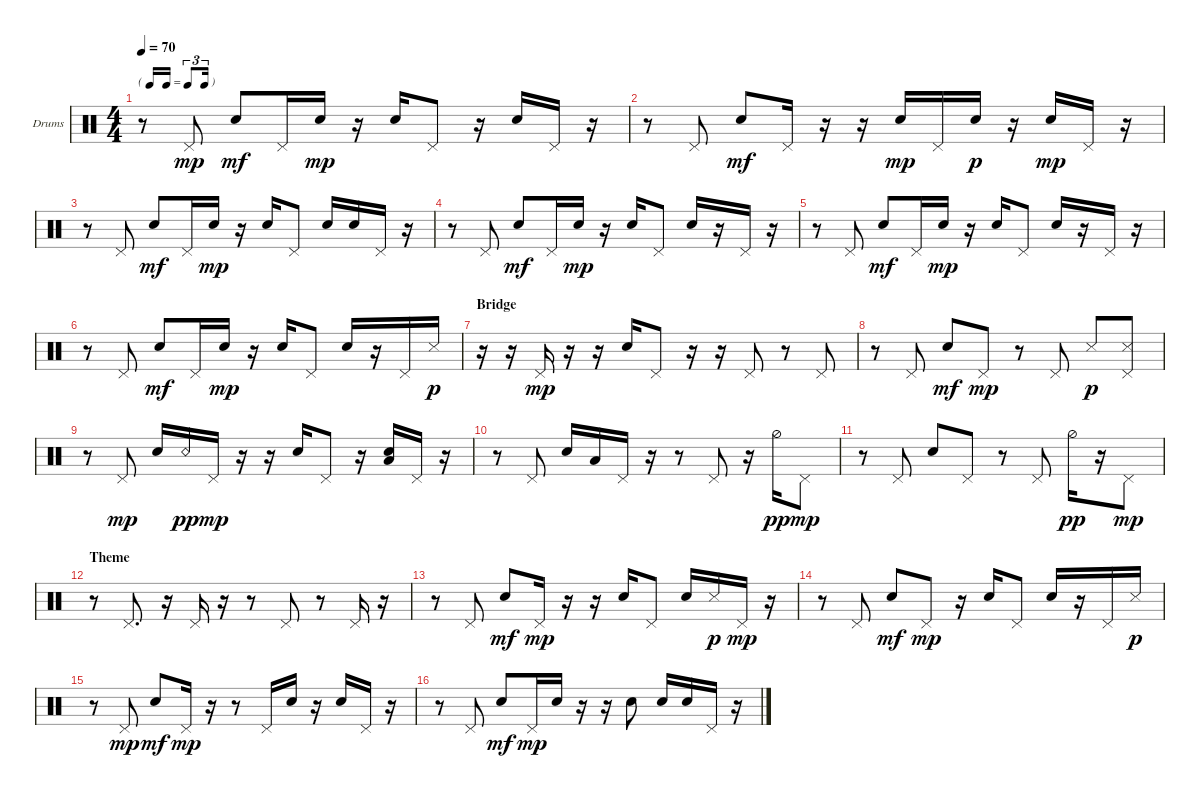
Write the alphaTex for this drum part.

\bracketExtendMode groupsimilarinstruments
\firstSystemTrackNameOrientation horizontal
\otherSystemsTrackNameOrientation horizontal
\track ("Snare" "Drums") {instrument percussion}
\staff {score}
\articulation defaults
\ts (4 4)
\tf triplet16th
\tempo 70
\clef neutral
\ks aminor
r.8{dy mp} "Pedal Hi-Hat (hit)".8 "Snare (hit) 2".8{dy mf} "Pedal Hi-Hat (hit)".16 "Snare (hit) 2".16{dy mp} r.16 "Snare (hit) 2".16 "Pedal Hi-Hat (hit)".8 r.16 "Snare (hit) 2".16 "Pedal Hi-Hat (hit)".16 r.16 |
r.8 "Pedal Hi-Hat (hit)".8 "Snare (hit) 2".8{dy mf} "Pedal Hi-Hat (hit)".16 r.16 r.16 "Snare (hit) 2".16{dy mp} "Pedal Hi-Hat (hit)".16 "Snare (hit) 2".16{dy p} r.16 "Snare (hit) 2".16{dy mp} "Pedal Hi-Hat (hit)".16 r.16 |
r.8 "Pedal Hi-Hat (hit)".8 "Snare (hit) 2".8{dy mf} "Pedal Hi-Hat (hit)".16 "Snare (hit) 2".16{dy mp} r.16 "Snare (hit) 2".16 "Pedal Hi-Hat (hit)".8 "Snare (hit) 2".16 "Snare (hit) 2".16 "Pedal Hi-Hat (hit)".16 r.16 |
r.8 "Pedal Hi-Hat (hit)".8 "Snare (hit) 2".8{dy mf} "Pedal Hi-Hat (hit)".16 "Snare (hit) 2".16{dy mp} r.16 "Snare (hit) 2".16 "Pedal Hi-Hat (hit)".8 "Snare (hit) 2".16 r.16 "Pedal Hi-Hat (hit)".16 r.16 |
r.8 "Pedal Hi-Hat (hit)".8 "Snare (hit) 2".8{dy mf} "Pedal Hi-Hat (hit)".16 "Snare (hit) 2".16{dy mp} r.16 "Snare (hit) 2".16 "Pedal Hi-Hat (hit)".8 "Snare (hit) 2".16 r.16 "Pedal Hi-Hat (hit)".16 r.16 |
r.8 "Pedal Hi-Hat (hit)".8 "Snare (hit) 2".8{dy mf} "Pedal Hi-Hat (hit)".16 "Snare (hit) 2".16{dy mp} r.16 "Snare (hit) 2".16 "Pedal Hi-Hat (hit)".8 "Snare (hit) 2".16 r.16 "Pedal Hi-Hat (hit)".16 "Snare (side stick) 3".16{dy p} |
\section ("" "Bridge")
r.16 r.16 "Pedal Hi-Hat (hit)".16{dy mp} r.16 r.16 "Snare (hit) 2".16 "Pedal Hi-Hat (hit)".8 r.16 r.16 "Pedal Hi-Hat (hit)".8 r.8 "Pedal Hi-Hat (hit)".8 |
r.8 "Pedal Hi-Hat (hit)".8 "Snare (hit) 2".8{dy mf} "Pedal Hi-Hat (hit)".8{dy mp} r.8 "Pedal Hi-Hat (hit)".8 "Snare (side stick) 3".8{dy p} ("Pedal Hi-Hat (hit)" "Snare (side stick) 3").8 |
r.8 "Pedal Hi-Hat (hit)".8{dy mp} "Snare (hit) 2".16 "Snare (rim shot)".16{dy pp} "Pedal Hi-Hat (hit)".16{dy mp} r.16 r.16 "Snare (hit) 2".16 "Pedal Hi-Hat (hit)".8 r.16 ("Snare (hit) 2" "Low Tom (hit)").16 "Pedal Hi-Hat (hit)".16 r.16 |
r.8 "Pedal Hi-Hat (hit)".8 "Snare (hit) 2".16 "Low Tom (hit)".16 "Pedal Hi-Hat (hit)".16 r.16 r.8 "Pedal Hi-Hat (hit)".8 r.16 "Hi-Hat (half)".16{dy pp} "Pedal Hi-Hat (hit)".8{dy mp} |
r.8 "Pedal Hi-Hat (hit)".8 "Snare (hit) 2".8 "Pedal Hi-Hat (hit)".8 r.8 "Pedal Hi-Hat (hit)".8 "Hi-Hat (half)".16{dy pp} r.16 "Pedal Hi-Hat (hit)".8{dy mp} |
\section ("" "Theme")
r.8 "Pedal Hi-Hat (hit)".8{d} r.16 "Pedal Hi-Hat (hit)".16 r.16 r.8 "Pedal Hi-Hat (hit)".8 r.8 "Pedal Hi-Hat (hit)".16 r.16 |
r.8 "Pedal Hi-Hat (hit)".8 "Snare (hit) 2".8{dy mf} "Pedal Hi-Hat (hit)".16{dy mp} r.16 r.16 "Snare (hit) 2".16 "Pedal Hi-Hat (hit)".8 "Snare (hit) 2".16 "Snare (side stick) 3".16{dy p} "Pedal Hi-Hat (hit)".16{dy mp} r.16 |
r.8 "Pedal Hi-Hat (hit)".8 "Snare (hit) 2".8{dy mf} "Pedal Hi-Hat (hit)".8{dy mp} r.16 "Snare (hit) 2".16 "Pedal Hi-Hat (hit)".8 "Snare (hit) 2".16 r.16 "Pedal Hi-Hat (hit)".16 "Snare (side stick) 3".16{dy p} |
r.8 "Pedal Hi-Hat (hit)".8{dy mp} "Snare (hit) 2".8{dy mf} "Pedal Hi-Hat (hit)".16{dy mp} r.16 r.8 "Pedal Hi-Hat (hit)".16 "Snare (hit) 2".16 r.16 "Snare (hit) 2".16 "Pedal Hi-Hat (hit)".16 r.16 |
r.8 "Pedal Hi-Hat (hit)".8 "Snare (hit) 2".8{dy mf} "Pedal Hi-Hat (hit)".16{dy mp} "Snare (hit) 2".16 r.16 r.16 "Snare (hit) 2".8 "Snare (hit) 2".16 "Snare (hit) 2".16 "Pedal Hi-Hat (hit)".16 r.16
